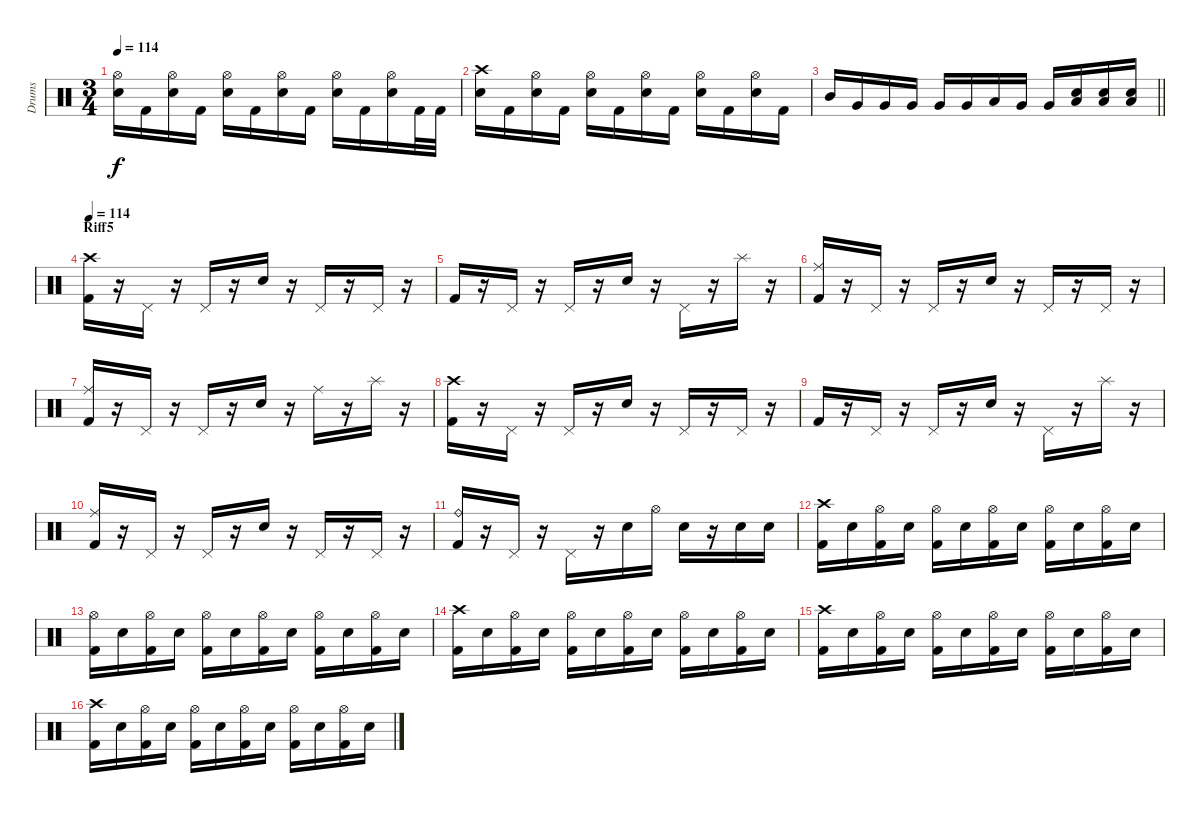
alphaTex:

\track ("Drums" "Drums") {instrument percussion}
\staff {score}
\articulation defaults
\ts (3 4)
\tempo 114
\clef neutral
\ks c
("Hi-Hat (open)" "Snare (hit) 2").16{dy f} "Kick (hit) 2".16 ("Hi-Hat (open)" "Snare (hit) 2").16 "Kick (hit) 2".16 ("Hi-Hat (open)" "Snare (hit) 2").16 "Kick (hit) 2".16 ("Hi-Hat (open)" "Snare (hit) 2").16 "Kick (hit) 2".16 ("Hi-Hat (open)" "Snare (hit) 2").16 "Kick (hit) 2".16 ("Hi-Hat (open)" "Snare (hit) 2").16 "Kick (hit) 2".32 "Kick (hit) 2".32 |
("Crash high (hit)" "Snare (hit) 2").16 "Kick (hit) 2".16 ("Hi-Hat (open)" "Snare (hit) 2").16 "Kick (hit) 2".16 ("Hi-Hat (open)" "Snare (hit) 2").16 "Kick (hit) 2".16 ("Hi-Hat (open)" "Snare (hit) 2").16 "Kick (hit) 2".16 ("Hi-Hat (open)" "Snare (hit) 2").16 "Kick (hit) 2".16 ("Hi-Hat (open)" "Snare (hit) 2").16 "Kick (hit) 2".16 |
\barLineRight lightlight "Mid Tom (hit)".16 "Very Low Tom (hit)".16 "Very Low Tom (hit)".16 "Very Low Tom (hit)".16 "Very Low Tom (hit)".16 "Very Low Tom (hit)".16 "Low Tom (hit)".16 "Very Low Tom (hit)".16 "Very Low Tom (hit)".16
("Low Floor Tom (hit)" "Snare (hit) 2").16 ("Low Floor Tom (hit)" "Snare (hit) 2").16 ("Low Floor Tom (hit)" "Snare (hit) 2").16 |
\section ("" "Riff5")
\tempo 114
("Crash high (hit)" "Kick (hit) 2").16 r.16 "Pedal Hi-Hat (hit)".16 r.16 "Pedal Hi-Hat (hit)".16 r.16 "Snare (hit) 2".16 r.16 "Pedal Hi-Hat (hit)".16 r.16 "Pedal Hi-Hat (hit)".16 r.16 |
"Kick (hit) 2".16 r.16 "Pedal Hi-Hat (hit)".16 r.16 "Pedal Hi-Hat (hit)".16 r.16 "Snare (hit) 2".16 r.16 "Pedal Hi-Hat (hit)".16 r.16 "Splash (hit)".16 r.16 |
("Ride (middle)" "Kick (hit) 2").16 r.16 "Pedal Hi-Hat (hit)".16 r.16 "Pedal Hi-Hat (hit)".16 r.16 "Snare (hit) 2".16 r.16 "Pedal Hi-Hat (hit)".16 r.16 "Pedal Hi-Hat (hit)".16 r.16 |
("Ride (middle)" "Kick (hit) 2").16 r.16 "Pedal Hi-Hat (hit)".16 r.16 "Pedal Hi-Hat (hit)".16 r.16 "Snare (hit) 2".16 r.16 "Ride (middle)".16 r.16 "Splash (hit)".16 r.16 |
("Crash high (hit)" "Kick (hit) 2").16 r.16 "Pedal Hi-Hat (hit)".16 r.16 "Pedal Hi-Hat (hit)".16 r.16 "Snare (hit) 2".16 r.16 "Pedal Hi-Hat (hit)".16 r.16 "Pedal Hi-Hat (hit)".16 r.16 |
"Kick (hit) 2".16 r.16 "Pedal Hi-Hat (hit)".16 r.16 "Pedal Hi-Hat (hit)".16 r.16 "Snare (hit) 2".16 r.16 "Pedal Hi-Hat (hit)".16 r.16 "Splash (hit)".16 r.16 |
("Ride (middle)" "Kick (hit) 2").16 r.16 "Pedal Hi-Hat (hit)".16 r.16 "Pedal Hi-Hat (hit)".16 r.16 "Snare (hit) 2".16 r.16 "Pedal Hi-Hat (hit)".16 r.16 "Pedal Hi-Hat (hit)".16 r.16 |
("Ride (bell)" "Kick (hit) 2").16 r.16 "Pedal Hi-Hat (hit)".16 r.16 "Pedal Hi-Hat (hit)".16 r.16 "Snare (hit) 2".16 "Hi-Hat (open)".16 "Snare (hit) 2".16 r.16 "Snare (hit) 2".16 "Snare (hit) 2".16 |
("Crash high (hit)" "Kick (hit) 2").16 "Snare (hit) 2".16 ("Hi-Hat (open)" "Kick (hit) 2").16 "Snare (hit) 2".16 ("Hi-Hat (open)" "Kick (hit) 2").16 "Snare (hit) 2".16 ("Hi-Hat (open)" "Kick (hit) 2").16 "Snare (hit) 2".16 ("Hi-Hat (open)" "Kick (hit) 2").16 "Snare (hit) 2".16 ("Hi-Hat (open)" "Kick (hit) 2").16 "Snare (hit) 2".16 |
("Hi-Hat (open)" "Kick (hit) 2").16 "Snare (hit) 2".16 ("Hi-Hat (open)" "Kick (hit) 2").16 "Snare (hit) 2".16 ("Hi-Hat (open)" "Kick (hit) 2").16 "Snare (hit) 2".16 ("Hi-Hat (open)" "Kick (hit) 2").16 "Snare (hit) 2".16 ("Hi-Hat (open)" "Kick (hit) 2").16 "Snare (hit) 2".16 ("Hi-Hat (open)" "Kick (hit) 2").16 "Snare (hit) 2".16 |
("Crash high (hit)" "Kick (hit) 2").16 "Snare (hit) 2".16 ("Hi-Hat (open)" "Kick (hit) 2").16 "Snare (hit) 2".16 ("Hi-Hat (open)" "Kick (hit) 2").16 "Snare (hit) 2".16 ("Hi-Hat (open)" "Kick (hit) 2").16 "Snare (hit) 2".16 ("Hi-Hat (open)" "Kick (hit) 2").16 "Snare (hit) 2".16 ("Hi-Hat (open)" "Kick (hit) 2").16 "Snare (hit) 2".16 |
("Crash high (hit)" "Kick (hit) 2").16 "Snare (hit) 2".16 ("Hi-Hat (open)" "Kick (hit) 2").16 "Snare (hit) 2".16 ("Hi-Hat (open)" "Kick (hit) 2").16 "Snare (hit) 2".16 ("Hi-Hat (open)" "Kick (hit) 2").16 "Snare (hit) 2".16 ("Hi-Hat (open)" "Kick (hit) 2").16 "Snare (hit) 2".16 ("Hi-Hat (open)" "Kick (hit) 2").16 "Snare (hit) 2".16 |
("Crash high (hit)" "Kick (hit) 2").16 "Snare (hit) 2".16 ("Hi-Hat (open)" "Kick (hit) 2").16 "Snare (hit) 2".16 ("Hi-Hat (open)" "Kick (hit) 2").16 "Snare (hit) 2".16 ("Hi-Hat (open)" "Kick (hit) 2").16 "Snare (hit) 2".16 ("Hi-Hat (open)" "Kick (hit) 2").16 "Snare (hit) 2".16 ("Hi-Hat (open)" "Kick (hit) 2").16 "Snare (hit) 2".16
